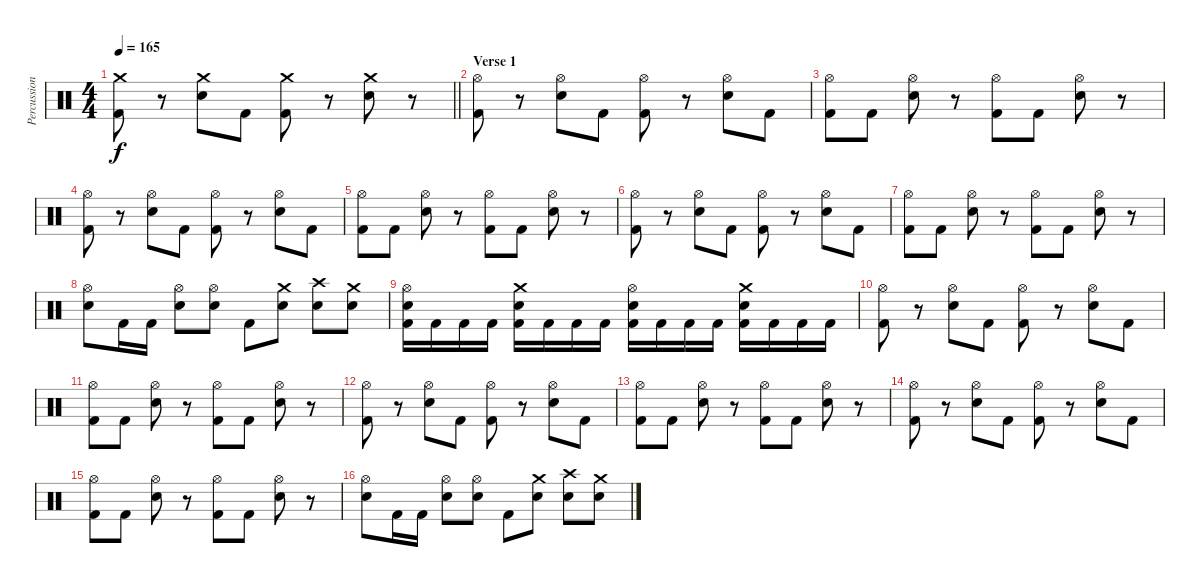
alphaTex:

\track ("Percussion" "Percussion") {instrument percussion}
\staff {score}
\articulation defaults
\ts (4 4)
\tempo 165
\clef neutral
\barLineRight lightlight
\ks c
("Crash medium (hit)" "Kick (hit) 2").8{dy f} r.8 ("Crash medium (hit)" "Electric Snare (hit)").8 "Kick (hit) 2".8 ("Crash medium (hit)" "Kick (hit) 2").8 r.8 ("Crash medium (hit)" "Electric Snare (hit)").8 r.8 |
\section ("" "Verse 1")
("Hi-Hat (open)" "Kick (hit) 2").8 r.8 ("Hi-Hat (open)" "Electric Snare (hit)").8 "Kick (hit) 2".8 ("Hi-Hat (open)" "Kick (hit) 2").8 r.8 ("Hi-Hat (open)" "Electric Snare (hit)").8 "Kick (hit) 2".8 |
("Hi-Hat (open)" "Kick (hit) 2").8 "Kick (hit) 2".8 ("Hi-Hat (open)" "Electric Snare (hit)").8 r.8 ("Hi-Hat (open)" "Kick (hit) 2").8 "Kick (hit) 2".8 ("Hi-Hat (open)" "Electric Snare (hit)").8 r.8 |
("Hi-Hat (open)" "Kick (hit) 2").8 r.8 ("Hi-Hat (open)" "Electric Snare (hit)").8 "Kick (hit) 2".8 ("Hi-Hat (open)" "Kick (hit) 2").8 r.8 ("Hi-Hat (open)" "Electric Snare (hit)").8 "Kick (hit) 2".8 |
("Hi-Hat (open)" "Kick (hit) 2").8 "Kick (hit) 2".8 ("Hi-Hat (open)" "Electric Snare (hit)").8 r.8 ("Hi-Hat (open)" "Kick (hit) 2").8 "Kick (hit) 2".8 ("Hi-Hat (open)" "Electric Snare (hit)").8 r.8 |
("Hi-Hat (open)" "Kick (hit) 2").8 r.8 ("Hi-Hat (open)" "Electric Snare (hit)").8 "Kick (hit) 2".8 ("Hi-Hat (open)" "Kick (hit) 2").8 r.8 ("Hi-Hat (open)" "Electric Snare (hit)").8 "Kick (hit) 2".8 |
("Hi-Hat (open)" "Kick (hit) 2").8 "Kick (hit) 2".8 ("Hi-Hat (open)" "Electric Snare (hit)").8 r.8 ("Hi-Hat (open)" "Kick (hit) 2").8 "Kick (hit) 2".8 ("Hi-Hat (open)" "Electric Snare (hit)").8 r.8 |
("Hi-Hat (open)" "Electric Snare (hit)").8 "Kick (hit) 2".16 "Kick (hit) 2".16 ("Hi-Hat (open)" "Electric Snare (hit)").8 ("Hi-Hat (open)" "Electric Snare (hit)").8 "Kick (hit) 2".8 ("Crash medium (hit)" "Electric Snare (hit)").8 ("Crash high (hit)" "Electric Snare (hit)").8 ("Crash medium (hit)" "Electric Snare (hit)").8 |
("Hi-Hat (open)" "Electric Snare (hit)" "Kick (hit) 2").16 "Kick (hit) 2".16 "Kick (hit) 2".16 "Kick (hit) 2".16 ("Crash medium (hit)" "Electric Snare (hit)" "Kick (hit) 2").16 "Kick (hit) 2".16 "Kick (hit) 2".16 "Kick (hit) 2".16 ("Hi-Hat (open)" "Electric Snare (hit)" "Kick (hit) 2").16 "Kick (hit) 2".16 "Kick (hit) 2".16 "Kick (hit) 2".16 ("Crash medium (hit)" "Electric Snare (hit)" "Kick (hit) 2").16 "Kick (hit) 2".16 "Kick (hit) 2".16 "Kick (hit) 2".16 |
("Hi-Hat (open)" "Kick (hit) 2").8 r.8 ("Hi-Hat (open)" "Electric Snare (hit)").8 "Kick (hit) 2".8 ("Hi-Hat (open)" "Kick (hit) 2").8 r.8 ("Hi-Hat (open)" "Electric Snare (hit)").8 "Kick (hit) 2".8 |
("Hi-Hat (open)" "Kick (hit) 2").8 "Kick (hit) 2".8 ("Hi-Hat (open)" "Electric Snare (hit)").8 r.8 ("Hi-Hat (open)" "Kick (hit) 2").8 "Kick (hit) 2".8 ("Hi-Hat (open)" "Electric Snare (hit)").8 r.8 |
("Hi-Hat (open)" "Kick (hit) 2").8 r.8 ("Hi-Hat (open)" "Electric Snare (hit)").8 "Kick (hit) 2".8 ("Hi-Hat (open)" "Kick (hit) 2").8 r.8 ("Hi-Hat (open)" "Electric Snare (hit)").8 "Kick (hit) 2".8 |
("Hi-Hat (open)" "Kick (hit) 2").8 "Kick (hit) 2".8 ("Hi-Hat (open)" "Electric Snare (hit)").8 r.8 ("Hi-Hat (open)" "Kick (hit) 2").8 "Kick (hit) 2".8 ("Hi-Hat (open)" "Electric Snare (hit)").8 r.8 |
("Hi-Hat (open)" "Kick (hit) 2").8 r.8 ("Hi-Hat (open)" "Electric Snare (hit)").8 "Kick (hit) 2".8 ("Hi-Hat (open)" "Kick (hit) 2").8 r.8 ("Hi-Hat (open)" "Electric Snare (hit)").8 "Kick (hit) 2".8 |
("Hi-Hat (open)" "Kick (hit) 2").8 "Kick (hit) 2".8 ("Hi-Hat (open)" "Electric Snare (hit)").8 r.8 ("Hi-Hat (open)" "Kick (hit) 2").8 "Kick (hit) 2".8 ("Hi-Hat (open)" "Electric Snare (hit)").8 r.8 |
("Hi-Hat (open)" "Electric Snare (hit)").8 "Kick (hit) 2".16 "Kick (hit) 2".16 ("Hi-Hat (open)" "Electric Snare (hit)").8 ("Hi-Hat (open)" "Electric Snare (hit)").8 "Kick (hit) 2".8 ("Crash medium (hit)" "Electric Snare (hit)").8 ("Crash high (hit)" "Electric Snare (hit)").8 ("Crash medium (hit)" "Electric Snare (hit)").8
